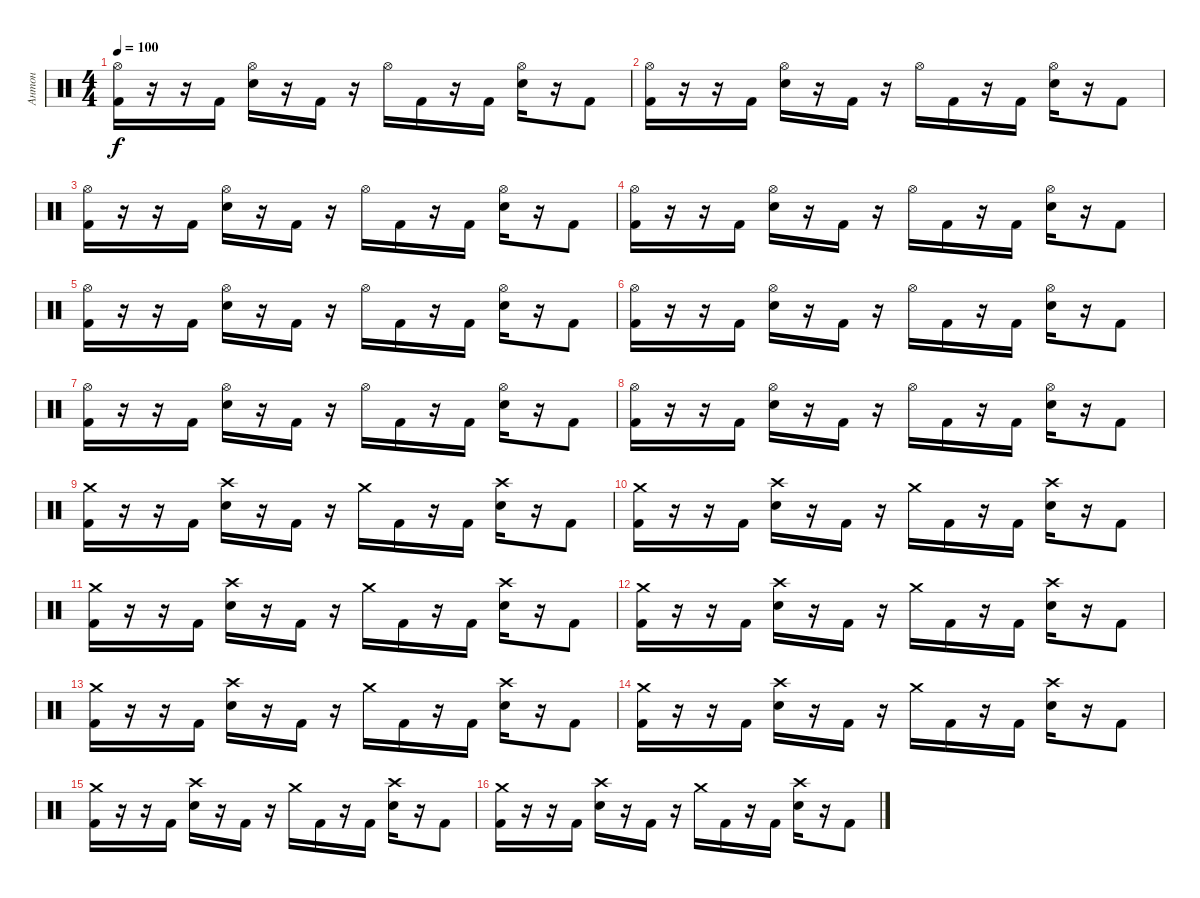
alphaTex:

\track ("Антон" "Антон") {instrument percussion}
\staff {score}
\articulation defaults
\ts (4 4)
\tempo 100
\clef neutral
\ks c
("Hi-Hat (open)" "Kick (hit) 2").16{dy f} r.16 r.16 "Kick (hit) 2".16 ("Hi-Hat (open)" "Electric Snare (hit)").16 r.16 "Kick (hit) 2".16 r.16 "Hi-Hat (open)".16 "Kick (hit) 2".16 r.16 "Kick (hit) 2".16 ("Hi-Hat (open)" "Electric Snare (hit)").16 r.16 "Kick (hit) 2".8 |
("Hi-Hat (open)" "Kick (hit) 2").16 r.16 r.16 "Kick (hit) 2".16 ("Hi-Hat (open)" "Electric Snare (hit)").16 r.16 "Kick (hit) 2".16 r.16 "Hi-Hat (open)".16 "Kick (hit) 2".16 r.16 "Kick (hit) 2".16 ("Hi-Hat (open)" "Electric Snare (hit)").16 r.16 "Kick (hit) 2".8 |
("Hi-Hat (open)" "Kick (hit) 2").16 r.16 r.16 "Kick (hit) 2".16 ("Hi-Hat (open)" "Electric Snare (hit)").16 r.16 "Kick (hit) 2".16 r.16 "Hi-Hat (open)".16 "Kick (hit) 2".16 r.16 "Kick (hit) 2".16 ("Hi-Hat (open)" "Electric Snare (hit)").16 r.16 "Kick (hit) 2".8 |
("Hi-Hat (open)" "Kick (hit) 2").16 r.16 r.16 "Kick (hit) 2".16 ("Hi-Hat (open)" "Electric Snare (hit)").16 r.16 "Kick (hit) 2".16 r.16 "Hi-Hat (open)".16 "Kick (hit) 2".16 r.16 "Kick (hit) 2".16 ("Hi-Hat (open)" "Electric Snare (hit)").16 r.16 "Kick (hit) 2".8 |
("Hi-Hat (open)" "Kick (hit) 2").16 r.16 r.16 "Kick (hit) 2".16 ("Hi-Hat (open)" "Electric Snare (hit)").16 r.16 "Kick (hit) 2".16 r.16 "Hi-Hat (open)".16 "Kick (hit) 2".16 r.16 "Kick (hit) 2".16 ("Hi-Hat (open)" "Electric Snare (hit)").16 r.16 "Kick (hit) 2".8 |
("Hi-Hat (open)" "Kick (hit) 2").16 r.16 r.16 "Kick (hit) 2".16 ("Hi-Hat (open)" "Electric Snare (hit)").16 r.16 "Kick (hit) 2".16 r.16 "Hi-Hat (open)".16 "Kick (hit) 2".16 r.16 "Kick (hit) 2".16 ("Hi-Hat (open)" "Electric Snare (hit)").16 r.16 "Kick (hit) 2".8 |
("Hi-Hat (open)" "Kick (hit) 2").16 r.16 r.16 "Kick (hit) 2".16 ("Hi-Hat (open)" "Electric Snare (hit)").16 r.16 "Kick (hit) 2".16 r.16 "Hi-Hat (open)".16 "Kick (hit) 2".16 r.16 "Kick (hit) 2".16 ("Hi-Hat (open)" "Electric Snare (hit)").16 r.16 "Kick (hit) 2".8 |
("Hi-Hat (open)" "Kick (hit) 2").16 r.16 r.16 "Kick (hit) 2".16 ("Hi-Hat (open)" "Electric Snare (hit)").16 r.16 "Kick (hit) 2".16 r.16 "Hi-Hat (open)".16 "Kick (hit) 2".16 r.16 "Kick (hit) 2".16 ("Hi-Hat (open)" "Electric Snare (hit)").16 r.16 "Kick (hit) 2".8 |
("Crash medium (hit)" "Kick (hit) 2").16 r.16 r.16 "Kick (hit) 2".16 ("Crash high (hit)" "Electric Snare (hit)").16 r.16 "Kick (hit) 2".16 r.16 "Crash medium (hit)".16 "Kick (hit) 2".16 r.16 "Kick (hit) 2".16 ("Crash high (hit)" "Electric Snare (hit)").16 r.16 "Kick (hit) 2".8 |
("Crash medium (hit)" "Kick (hit) 2").16 r.16 r.16 "Kick (hit) 2".16 ("Crash high (hit)" "Electric Snare (hit)").16 r.16 "Kick (hit) 2".16 r.16 "Crash medium (hit)".16 "Kick (hit) 2".16 r.16 "Kick (hit) 2".16 ("Crash high (hit)" "Electric Snare (hit)").16 r.16 "Kick (hit) 2".8 |
("Crash medium (hit)" "Kick (hit) 2").16 r.16 r.16 "Kick (hit) 2".16 ("Crash high (hit)" "Electric Snare (hit)").16 r.16 "Kick (hit) 2".16 r.16 "Crash medium (hit)".16 "Kick (hit) 2".16 r.16 "Kick (hit) 2".16 ("Crash high (hit)" "Electric Snare (hit)").16 r.16 "Kick (hit) 2".8 |
("Crash medium (hit)" "Kick (hit) 2").16 r.16 r.16 "Kick (hit) 2".16 ("Crash high (hit)" "Electric Snare (hit)").16 r.16 "Kick (hit) 2".16 r.16 "Crash medium (hit)".16 "Kick (hit) 2".16 r.16 "Kick (hit) 2".16 ("Crash high (hit)" "Electric Snare (hit)").16 r.16 "Kick (hit) 2".8 |
("Crash medium (hit)" "Kick (hit) 2").16 r.16 r.16 "Kick (hit) 2".16 ("Crash high (hit)" "Electric Snare (hit)").16 r.16 "Kick (hit) 2".16 r.16 "Crash medium (hit)".16 "Kick (hit) 2".16 r.16 "Kick (hit) 2".16 ("Crash high (hit)" "Electric Snare (hit)").16 r.16 "Kick (hit) 2".8 |
("Crash medium (hit)" "Kick (hit) 2").16 r.16 r.16 "Kick (hit) 2".16 ("Crash high (hit)" "Electric Snare (hit)").16 r.16 "Kick (hit) 2".16 r.16 "Crash medium (hit)".16 "Kick (hit) 2".16 r.16 "Kick (hit) 2".16 ("Crash high (hit)" "Electric Snare (hit)").16 r.16 "Kick (hit) 2".8 |
("Crash medium (hit)" "Kick (hit) 2").16 r.16 r.16 "Kick (hit) 2".16 ("Crash high (hit)" "Electric Snare (hit)").16 r.16 "Kick (hit) 2".16 r.16 "Crash medium (hit)".16 "Kick (hit) 2".16 r.16 "Kick (hit) 2".16 ("Crash high (hit)" "Electric Snare (hit)").16 r.16 "Kick (hit) 2".8 |
("Crash medium (hit)" "Kick (hit) 2").16 r.16 r.16 "Kick (hit) 2".16 ("Crash high (hit)" "Electric Snare (hit)").16 r.16 "Kick (hit) 2".16 r.16 "Crash medium (hit)".16 "Kick (hit) 2".16 r.16 "Kick (hit) 2".16 ("Crash high (hit)" "Electric Snare (hit)").16 r.16 "Kick (hit) 2".8
